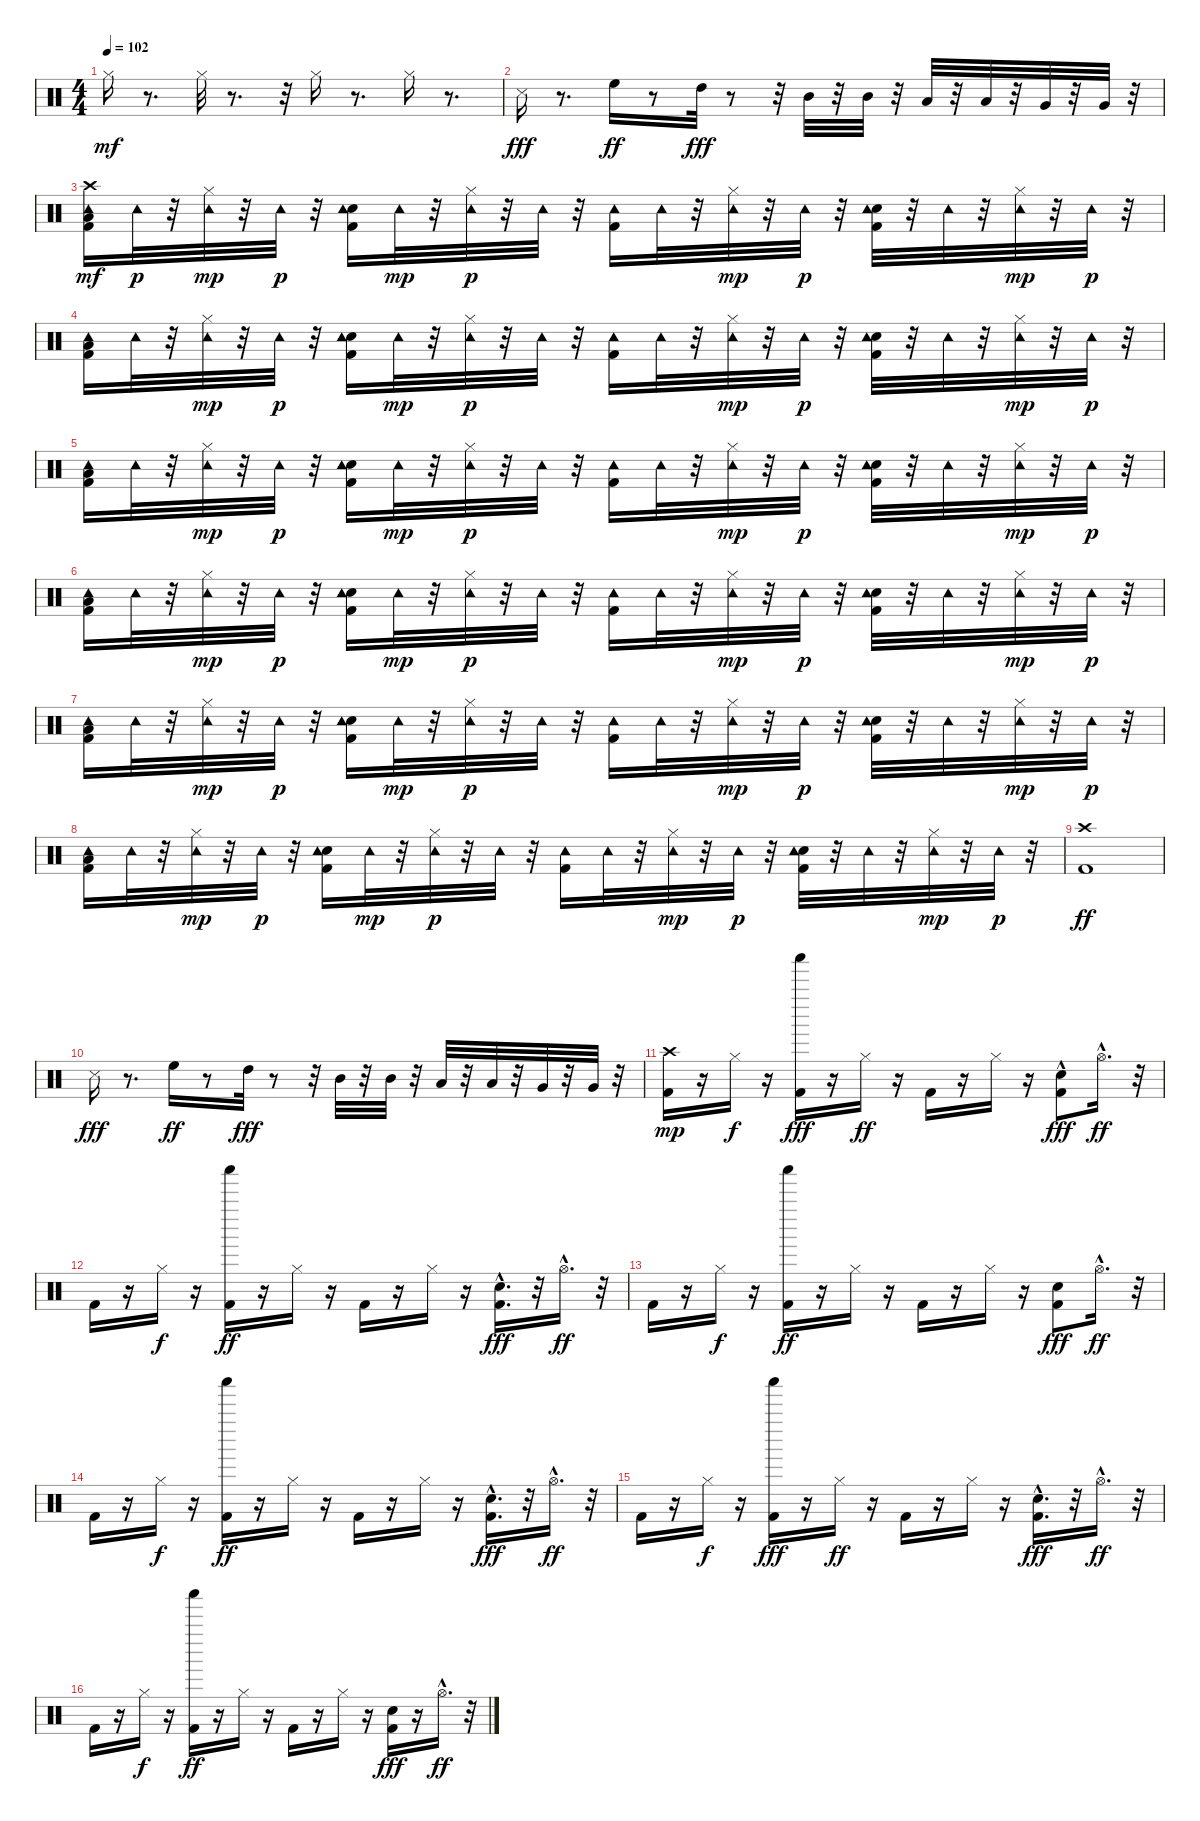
\track "" {instrument percussion}
\staff {score}
\articulation defaults
\ts (4 4)
\tempo 102
\clef neutral
\ks c "Hi-Hat (closed)".16{dy mf}
r.8{d} "Hi-Hat (closed)".32 r.8{d} r.32 "Hi-Hat (closed)".16 r.8{d} "Hi-Hat (closed)".16 r.8{d} |
"Snare (side stick) 3".16{dy fff} r.8{d} "High Floor Tom (hit)".16{dy ff} r.8 "High Tom (hit)".32{dy fff} r.8 r.32 "Mid Tom (hit)".32 r.32 "Mid Tom (hit)".32 r.32 "Low Tom (hit)".32 r.32 "Low Tom (hit)".32 r.32 "Very Low Tom (hit)".32 r.32 "Very Low Tom (hit)".32 r.32 |
("Low Floor Tom (hit)" "Kick (hit) 2" "Tambourine (hit)" "Crash high (hit)").16{dy mf} "Tambourine (hit)".32{dy p} r.32 ("Tambourine (hit)" "Hi-Hat (closed)").32{dy mp} r.32 "Tambourine (hit)".32{dy p} r.32 ("Kick (hit) 2" "Snare (hit) 2" "Tambourine (hit)").16 "Tambourine (hit)".32{dy mp} r.32 ("Tambourine (hit)" "Hi-Hat (closed)").32{dy p} r.32 "Tambourine (hit)".32 r.32 ("Kick (hit) 2" "Tambourine (hit)").16 "Tambourine (hit)".32 r.32 ("Tambourine (hit)" "Hi-Hat (closed)").32{dy mp} r.32 "Tambourine (hit)".32{dy p} r.32 ("Kick (hit) 2" "Snare (hit) 2" "Tambourine (hit)").32 r.32 "Tambourine (hit)".32 r.32 ("Tambourine (hit)" "Hi-Hat (closed)").32{dy mp} r.32 "Tambourine (hit)".32{dy p} r.32 |
("Low Floor Tom (hit)" "Kick (hit) 2" "Tambourine (hit)").16 "Tambourine (hit)".32 r.32 ("Tambourine (hit)" "Hi-Hat (closed)").32{dy mp} r.32 "Tambourine (hit)".32{dy p} r.32 ("Kick (hit) 2" "Snare (hit) 2" "Tambourine (hit)").16 "Tambourine (hit)".32{dy mp} r.32 ("Tambourine (hit)" "Hi-Hat (closed)").32{dy p} r.32 "Tambourine (hit)".32 r.32 ("Kick (hit) 2" "Tambourine (hit)").16 "Tambourine (hit)".32 r.32 ("Tambourine (hit)" "Hi-Hat (closed)").32{dy mp} r.32 "Tambourine (hit)".32{dy p} r.32 ("Kick (hit) 2" "Snare (hit) 2" "Tambourine (hit)").32 r.32 "Tambourine (hit)".32 r.32 ("Tambourine (hit)" "Hi-Hat (closed)").32{dy mp} r.32 "Tambourine (hit)".32{dy p} r.32 |
("Low Floor Tom (hit)" "Kick (hit) 2" "Tambourine (hit)").16 "Tambourine (hit)".32 r.32 ("Tambourine (hit)" "Hi-Hat (closed)").32{dy mp} r.32 "Tambourine (hit)".32{dy p} r.32 ("Kick (hit) 2" "Snare (hit) 2" "Tambourine (hit)").16 "Tambourine (hit)".32{dy mp} r.32 ("Tambourine (hit)" "Hi-Hat (closed)").32{dy p} r.32 "Tambourine (hit)".32 r.32 ("Kick (hit) 2" "Tambourine (hit)").16 "Tambourine (hit)".32 r.32 ("Tambourine (hit)" "Hi-Hat (closed)").32{dy mp} r.32 "Tambourine (hit)".32{dy p} r.32 ("Kick (hit) 2" "Snare (hit) 2" "Tambourine (hit)").32 r.32 "Tambourine (hit)".32 r.32 ("Tambourine (hit)" "Hi-Hat (closed)").32{dy mp} r.32 "Tambourine (hit)".32{dy p} r.32 |
("Low Floor Tom (hit)" "Kick (hit) 2" "Tambourine (hit)").16 "Tambourine (hit)".32 r.32 ("Tambourine (hit)" "Hi-Hat (closed)").32{dy mp} r.32 "Tambourine (hit)".32{dy p} r.32 ("Kick (hit) 2" "Snare (hit) 2" "Tambourine (hit)").16 "Tambourine (hit)".32{dy mp} r.32 ("Tambourine (hit)" "Hi-Hat (closed)").32{dy p} r.32 "Tambourine (hit)".32 r.32 ("Kick (hit) 2" "Tambourine (hit)").16 "Tambourine (hit)".32 r.32 ("Tambourine (hit)" "Hi-Hat (closed)").32{dy mp} r.32 "Tambourine (hit)".32{dy p} r.32 ("Kick (hit) 2" "Snare (hit) 2" "Tambourine (hit)").32 r.32 "Tambourine (hit)".32 r.32 ("Tambourine (hit)" "Hi-Hat (closed)").32{dy mp} r.32 "Tambourine (hit)".32{dy p} r.32 |
("Low Floor Tom (hit)" "Kick (hit) 2" "Tambourine (hit)").16 "Tambourine (hit)".32 r.32 ("Tambourine (hit)" "Hi-Hat (closed)").32{dy mp} r.32 "Tambourine (hit)".32{dy p} r.32 ("Kick (hit) 2" "Snare (hit) 2" "Tambourine (hit)").16 "Tambourine (hit)".32{dy mp} r.32 ("Tambourine (hit)" "Hi-Hat (closed)").32{dy p} r.32 "Tambourine (hit)".32 r.32 ("Kick (hit) 2" "Tambourine (hit)").16 "Tambourine (hit)".32 r.32 ("Tambourine (hit)" "Hi-Hat (closed)").32{dy mp} r.32 "Tambourine (hit)".32{dy p} r.32 ("Kick (hit) 2" "Snare (hit) 2" "Tambourine (hit)").32 r.32 "Tambourine (hit)".32 r.32 ("Tambourine (hit)" "Hi-Hat (closed)").32{dy mp} r.32 "Tambourine (hit)".32{dy p} r.32 |
("Low Floor Tom (hit)" "Kick (hit) 2" "Tambourine (hit)").16 "Tambourine (hit)".32 r.32 ("Tambourine (hit)" "Hi-Hat (closed)").32{dy mp} r.32 "Tambourine (hit)".32{dy p} r.32 ("Kick (hit) 2" "Snare (hit) 2" "Tambourine (hit)").16 "Tambourine (hit)".32{dy mp} r.32 ("Tambourine (hit)" "Hi-Hat (closed)").32{dy p} r.32 "Tambourine (hit)".32 r.32 ("Kick (hit) 2" "Tambourine (hit)").16 "Tambourine (hit)".32 r.32 ("Tambourine (hit)" "Hi-Hat (closed)").32{dy mp} r.32 "Tambourine (hit)".32{dy p} r.32 ("Kick (hit) 2" "Snare (hit) 2" "Tambourine (hit)").32 r.32 "Tambourine (hit)".32 r.32 ("Tambourine (hit)" "Hi-Hat (closed)").32{dy mp} r.32 "Tambourine (hit)".32{dy p} r.32 |
("Crash high (hit)" "Kick (hit) 2").1{dy ff} |
"Snare (side stick) 3".16{dy fff} r.8{d} "High Floor Tom (hit)".16{dy ff} r.8 "High Tom (hit)".32{dy fff} r.8 r.32 "Mid Tom (hit)".32 r.32 "Mid Tom (hit)".32 r.32 "Low Tom (hit)".32 r.32 "Low Tom (hit)".32 r.32 "Very Low Tom (hit)".32 r.32 "Very Low Tom (hit)".32 r.32 |
("Kick (hit) 2" "Crash high (hit)").16{dy mp} r.16 "Hi-Hat (closed)".16{dy f} r.16 ("Kick (hit) 2" "Shaker (hit)").16{dy fff} r.16 "Hi-Hat (closed)".16{dy ff} r.16 "Kick (hit) 2".16 r.16 "Hi-Hat (closed)".16 r.16 ("Kick (hit) 2" "Hand Clap (hit)"{hac}).8{dy fff} "Hi-Hat (open)"{hac}.16{d dy ff} r.32 |
"Kick (hit) 2".16 r.16 "Hi-Hat (closed)".16{dy f} r.16 ("Kick (hit) 2" "Shaker (hit)").16{dy ff} r.16 "Hi-Hat (closed)".16 r.16 "Kick (hit) 2".16 r.16 "Hi-Hat (closed)".16 r.16 ("Kick (hit) 2" "Hand Clap (hit)"{hac}).16{d dy fff} r.32 "Hi-Hat (open)"{hac}.16{d dy ff} r.32 |
"Kick (hit) 2".16 r.16 "Hi-Hat (closed)".16{dy f} r.16 ("Kick (hit) 2" "Shaker (hit)").16{dy ff} r.16 "Hi-Hat (closed)".16 r.16 "Kick (hit) 2".16 r.16 "Hi-Hat (closed)".16 r.16 ("Kick (hit) 2" "Hand Clap (hit)").8{dy fff} "Hi-Hat (open)"{hac}.16{d dy ff} r.32 |
"Kick (hit) 2".16 r.16 "Hi-Hat (closed)".16{dy f} r.16 ("Kick (hit) 2" "Shaker (hit)").16{dy ff} r.16 "Hi-Hat (closed)".16 r.16 "Kick (hit) 2".16 r.16 "Hi-Hat (closed)".16 r.16 ("Kick (hit) 2" "Hand Clap (hit)"{hac}).16{d dy fff} r.32 "Hi-Hat (open)"{hac}.16{d dy ff} r.32 |
"Kick (hit) 2".16 r.16 "Hi-Hat (closed)".16{dy f} r.16 ("Kick (hit) 2" "Shaker (hit)").16{dy fff} r.16 "Hi-Hat (closed)".16{dy ff} r.16 "Kick (hit) 2".16 r.16 "Hi-Hat (closed)".16 r.16 ("Kick (hit) 2" "Hand Clap (hit)"{hac}).16{d dy fff} r.32 "Hi-Hat (open)"{hac}.16{d dy ff} r.32 |
"Kick (hit) 2".16 r.16 "Hi-Hat (closed)".16{dy f} r.16 ("Kick (hit) 2" "Shaker (hit)").16{dy ff} r.16 "Hi-Hat (closed)".16 r.16 "Kick (hit) 2".16 r.16 "Hi-Hat (closed)".16 r.16 ("Kick (hit) 2" "Hand Clap (hit)").16{dy fff} r.16 "Hi-Hat (open)"{hac}.16{d dy ff} r.32
